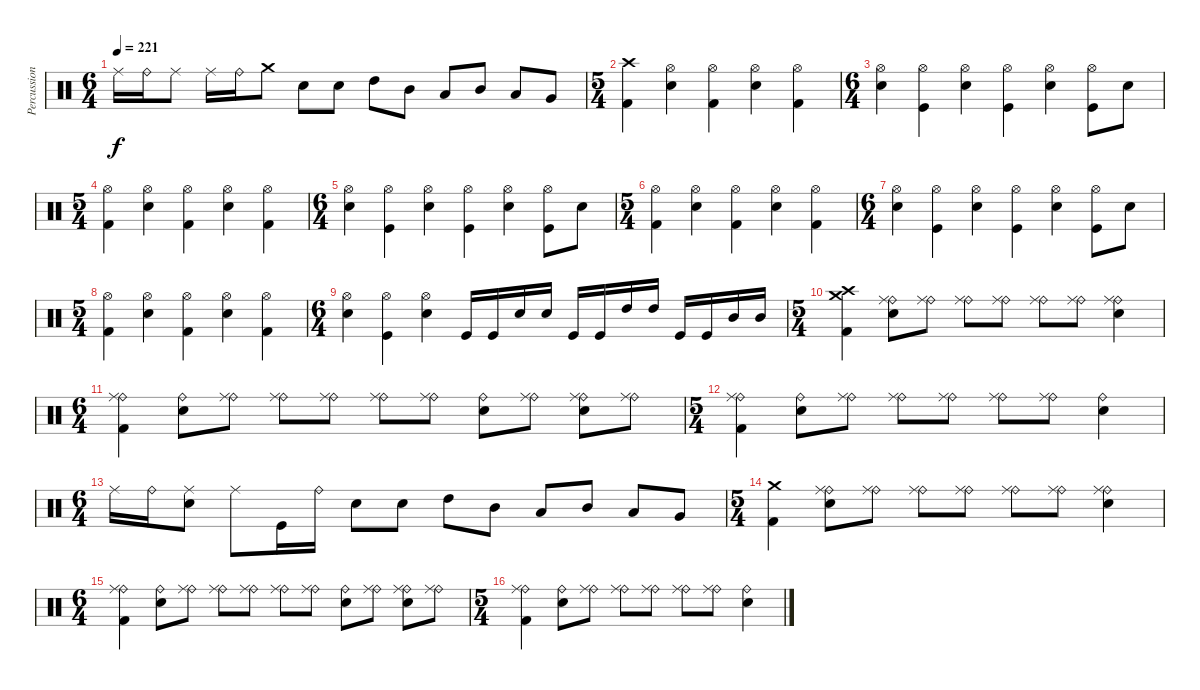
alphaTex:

\track ("Percussion" "Percussion") {instrument percussion}
\staff {score}
\articulation defaults
\ts (6 4)
\tempo 221
\clef neutral
\ks c "Ride (middle)".16{dy f} "Ride (bell)".16 "Ride (middle)".8 "Ride (middle)".16 "Ride (bell)".16 "Crash medium (hit)".8 "Electric Snare (hit)".8 "Electric Snare (hit)".8 "High Tom (hit)".8 "Mid Tom (hit)".8 "Low Tom (hit)".8 "Mid Tom (hit)".8 "Low Tom (hit)".8 "Very Low Tom (hit)".8
|
\ts (5 4)
("Crash high (hit)" "Kick (hit) 2").4 ("Hi-Hat (open)" "Electric Snare (hit)").4 ("Hi-Hat (open)" "Kick (hit) 2").4 ("Hi-Hat (open)" "Electric Snare (hit)").4 ("Hi-Hat (open)" "Kick (hit) 2").4 |
\ts (6 4)
("Hi-Hat (open)" "Electric Snare (hit)").4 ("Hi-Hat (open)" "Kick (hit)").4 ("Hi-Hat (open)" "Electric Snare (hit)").4 ("Hi-Hat (open)" "Kick (hit)").4 ("Hi-Hat (open)" "Electric Snare (hit)").4 ("Hi-Hat (open)" "Kick (hit)").8 "Electric Snare (hit)".8 |
\ts (5 4)
("Hi-Hat (open)" "Kick (hit) 2").4 ("Hi-Hat (open)" "Electric Snare (hit)").4 ("Hi-Hat (open)" "Kick (hit) 2").4 ("Hi-Hat (open)" "Electric Snare (hit)").4 ("Hi-Hat (open)" "Kick (hit) 2").4 |
\ts (6 4)
("Hi-Hat (open)" "Electric Snare (hit)").4 ("Hi-Hat (open)" "Kick (hit)").4 ("Hi-Hat (open)" "Electric Snare (hit)").4 ("Hi-Hat (open)" "Kick (hit)").4 ("Hi-Hat (open)" "Electric Snare (hit)").4 ("Hi-Hat (open)" "Kick (hit)").8 "Electric Snare (hit)".8 |
\ts (5 4)
("Hi-Hat (open)" "Kick (hit) 2").4 ("Hi-Hat (open)" "Electric Snare (hit)").4 ("Hi-Hat (open)" "Kick (hit) 2").4 ("Hi-Hat (open)" "Electric Snare (hit)").4 ("Hi-Hat (open)" "Kick (hit) 2").4 |
\ts (6 4)
("Hi-Hat (open)" "Electric Snare (hit)").4 ("Hi-Hat (open)" "Kick (hit)").4 ("Hi-Hat (open)" "Electric Snare (hit)").4 ("Hi-Hat (open)" "Kick (hit)").4 ("Hi-Hat (open)" "Electric Snare (hit)").4 ("Hi-Hat (open)" "Kick (hit)").8 "Electric Snare (hit)".8 |
\ts (5 4)
("Hi-Hat (open)" "Kick (hit) 2").4 ("Hi-Hat (open)" "Electric Snare (hit)").4 ("Hi-Hat (open)" "Kick (hit) 2").4 ("Hi-Hat (open)" "Electric Snare (hit)").4 ("Hi-Hat (open)" "Kick (hit) 2").4 |
\ts (6 4)
("Hi-Hat (open)" "Electric Snare (hit)").4 ("Hi-Hat (open)" "Kick (hit)").4 ("Hi-Hat (open)" "Electric Snare (hit)").4 "Kick (hit)".16 "Kick (hit)".16 "Snare (hit) 2".16 "Snare (hit) 2".16 "Kick (hit)".16 "Kick (hit)".16 "High Tom (hit)".16 "High Tom (hit)".16 "Kick (hit)".16 "Kick (hit)".16 "Mid Tom (hit)".16 "Mid Tom (hit)".16 |
\ts (5 4)
("Crash medium (hit)" "Crash high (hit)" "Kick (hit) 2").4 ("Ride (bell)" "Ride (middle)" "Electric Snare (hit)").8 ("Ride (bell)" "Ride (middle)").8 ("Ride (bell)" "Ride (middle)").8 ("Ride (bell)" "Ride (middle)").8 ("Ride (bell)" "Ride (middle)").8 ("Ride (bell)" "Ride (middle)").8 ("Ride (bell)" "Ride (middle)" "Electric Snare (hit)").4 |
\ts (6 4)
("Ride (bell)" "Ride (middle)" "Kick (hit) 2").4 ("Ride (bell)" "Electric Snare (hit)").8 ("Ride (bell)" "Ride (middle)").8 ("Ride (bell)" "Ride (middle)").8 ("Ride (bell)" "Ride (middle)").8 ("Ride (bell)" "Ride (middle)").8 ("Ride (bell)" "Ride (middle)").8 ("Ride (bell)" "Electric Snare (hit)").8 ("Ride (bell)" "Ride (middle)").8 ("Ride (bell)" "Ride (middle)" "Electric Snare (hit)").8 ("Ride (bell)" "Ride (middle)").8 |
\ts (5 4)
("Ride (bell)" "Ride (middle)" "Kick (hit) 2").4 ("Ride (bell)" "Electric Snare (hit)").8 ("Ride (bell)" "Ride (middle)").8 ("Ride (bell)" "Ride (middle)").8 ("Ride (bell)" "Ride (middle)").8 ("Ride (bell)" "Ride (middle)").8 ("Ride (bell)" "Ride (middle)").8 ("Ride (bell)" "Electric Snare (hit)").4 |
\ts (6 4)
"Ride (middle)".16 "Ride (bell)".16 ("Electric Snare (hit)" "Ride (middle)").8 "Ride (middle)".8 "Kick (hit)".16 "Ride (bell)".16 "Electric Snare (hit)".8 "Electric Snare (hit)".8 "High Tom (hit)".8 "Mid Tom (hit)".8 "Low Tom (hit)".8 "Mid Tom (hit)".8 "Low Tom (hit)".8 "Very Low Tom (hit)".8 |
\ts (5 4)
("Crash medium (hit)" "Kick (hit) 2").4 ("Ride (bell)" "Ride (middle)" "Electric Snare (hit)").8 ("Ride (bell)" "Ride (middle)").8 ("Ride (bell)" "Ride (middle)").8 ("Ride (bell)" "Ride (middle)").8 ("Ride (bell)" "Ride (middle)").8 ("Ride (bell)" "Ride (middle)").8 ("Ride (bell)" "Ride (middle)" "Electric Snare (hit)").4 |
\ts (6 4)
("Ride (bell)" "Ride (middle)" "Kick (hit) 2").4 ("Ride (bell)" "Electric Snare (hit)").8 ("Ride (bell)" "Ride (middle)").8 ("Ride (bell)" "Ride (middle)").8 ("Ride (bell)" "Ride (middle)").8 ("Ride (bell)" "Ride (middle)").8 ("Ride (bell)" "Ride (middle)").8 ("Ride (bell)" "Electric Snare (hit)").8 ("Ride (bell)" "Ride (middle)").8 ("Ride (bell)" "Ride (middle)" "Electric Snare (hit)").8 ("Ride (bell)" "Ride (middle)").8 |
\ts (5 4)
("Ride (bell)" "Ride (middle)" "Kick (hit) 2").4 ("Ride (bell)" "Electric Snare (hit)").8 ("Ride (bell)" "Ride (middle)").8 ("Ride (bell)" "Ride (middle)").8 ("Ride (bell)" "Ride (middle)").8 ("Ride (bell)" "Ride (middle)").8 ("Ride (bell)" "Ride (middle)").8 ("Ride (bell)" "Electric Snare (hit)").4
